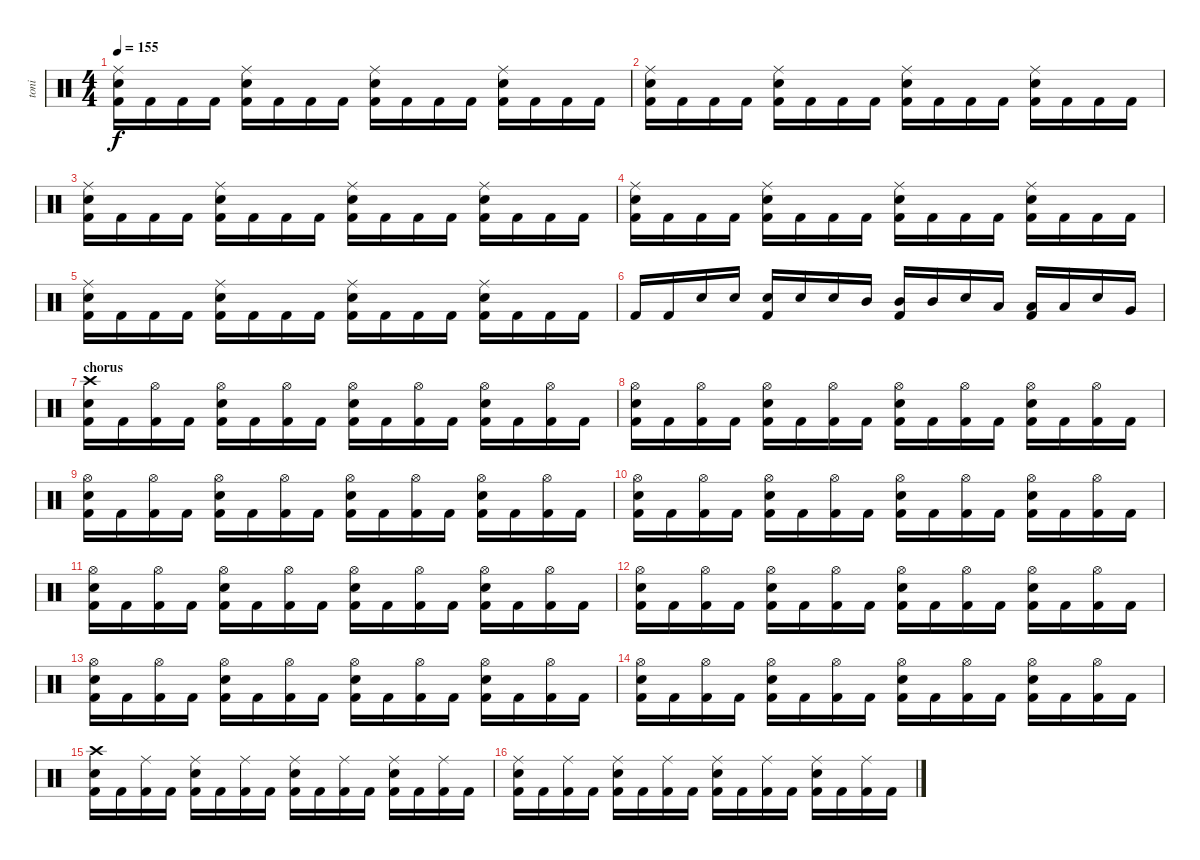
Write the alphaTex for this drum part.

\track ("toni" "toni") {instrument percussion}
\staff {score}
\articulation defaults
\ts (4 4)
\tempo 155
\clef neutral
\ks c
("Ride (middle)" "Snare (hit) 2" "Kick (hit) 2").16{dy f} "Kick (hit) 2".16 "Kick (hit) 2".16 "Kick (hit) 2".16 ("Ride (middle)" "Snare (hit) 2" "Kick (hit) 2").16 "Kick (hit) 2".16 "Kick (hit) 2".16 "Kick (hit) 2".16 ("Ride (middle)" "Snare (hit) 2" "Kick (hit) 2").16 "Kick (hit) 2".16 "Kick (hit) 2".16 "Kick (hit) 2".16 ("Ride (middle)" "Snare (hit) 2" "Kick (hit) 2").16 "Kick (hit) 2".16 "Kick (hit) 2".16 "Kick (hit) 2".16 |
("Ride (middle)" "Snare (hit) 2" "Kick (hit) 2").16 "Kick (hit) 2".16 "Kick (hit) 2".16 "Kick (hit) 2".16 ("Ride (middle)" "Snare (hit) 2" "Kick (hit) 2").16 "Kick (hit) 2".16 "Kick (hit) 2".16 "Kick (hit) 2".16 ("Ride (middle)" "Snare (hit) 2" "Kick (hit) 2").16 "Kick (hit) 2".16 "Kick (hit) 2".16 "Kick (hit) 2".16 ("Ride (middle)" "Snare (hit) 2" "Kick (hit) 2").16 "Kick (hit) 2".16 "Kick (hit) 2".16 "Kick (hit) 2".16 |
("Ride (middle)" "Snare (hit) 2" "Kick (hit) 2").16 "Kick (hit) 2".16 "Kick (hit) 2".16 "Kick (hit) 2".16 ("Ride (middle)" "Snare (hit) 2" "Kick (hit) 2").16 "Kick (hit) 2".16 "Kick (hit) 2".16 "Kick (hit) 2".16 ("Ride (middle)" "Snare (hit) 2" "Kick (hit) 2").16 "Kick (hit) 2".16 "Kick (hit) 2".16 "Kick (hit) 2".16 ("Ride (middle)" "Snare (hit) 2" "Kick (hit) 2").16 "Kick (hit) 2".16 "Kick (hit) 2".16 "Kick (hit) 2".16 |
("Ride (middle)" "Snare (hit) 2" "Kick (hit) 2").16 "Kick (hit) 2".16 "Kick (hit) 2".16 "Kick (hit) 2".16 ("Ride (middle)" "Snare (hit) 2" "Kick (hit) 2").16 "Kick (hit) 2".16 "Kick (hit) 2".16 "Kick (hit) 2".16 ("Ride (middle)" "Snare (hit) 2" "Kick (hit) 2").16 "Kick (hit) 2".16 "Kick (hit) 2".16 "Kick (hit) 2".16 ("Ride (middle)" "Snare (hit) 2" "Kick (hit) 2").16 "Kick (hit) 2".16 "Kick (hit) 2".16 "Kick (hit) 2".16 |
("Ride (middle)" "Snare (hit) 2" "Kick (hit) 2").16 "Kick (hit) 2".16 "Kick (hit) 2".16 "Kick (hit) 2".16 ("Ride (middle)" "Snare (hit) 2" "Kick (hit) 2").16 "Kick (hit) 2".16 "Kick (hit) 2".16 "Kick (hit) 2".16 ("Ride (middle)" "Snare (hit) 2" "Kick (hit) 2").16 "Kick (hit) 2".16 "Kick (hit) 2".16 "Kick (hit) 2".16 ("Ride (middle)" "Snare (hit) 2" "Kick (hit) 2").16 "Kick (hit) 2".16 "Kick (hit) 2".16 "Kick (hit) 2".16 |
"Kick (hit) 2".16 "Kick (hit) 2".16 "Snare (hit) 2".16 "Snare (hit) 2".16 ("Snare (hit) 2" "Kick (hit) 2").16 "Snare (hit) 2".16 "Snare (hit) 2".16 "Mid Tom (hit)".16 ("Mid Tom (hit)" "Kick (hit) 2").16 "Mid Tom (hit)".16 "Snare (hit) 2".16 "Low Tom (hit)".16 ("Low Tom (hit)" "Kick (hit) 2").16 "Low Tom (hit)".16 "Snare (hit) 2".16 "Very Low Tom (hit)".16 |
\section ("" "chorus")
("Crash high (hit)" "Snare (hit) 2" "Kick (hit) 2").16 "Kick (hit) 2".16 ("Hi-Hat (open)" "Kick (hit) 2").16 "Kick (hit) 2".16 ("Hi-Hat (open)" "Snare (hit) 2" "Kick (hit) 2").16 "Kick (hit) 2".16 ("Hi-Hat (open)" "Kick (hit) 2").16 "Kick (hit) 2".16 ("Hi-Hat (open)" "Snare (hit) 2" "Kick (hit) 2").16 "Kick (hit) 2".16 ("Hi-Hat (open)" "Kick (hit) 2").16 "Kick (hit) 2".16 ("Hi-Hat (open)" "Snare (hit) 2" "Kick (hit) 2").16 "Kick (hit) 2".16 ("Hi-Hat (open)" "Kick (hit) 2").16 "Kick (hit) 2".16 |
("Hi-Hat (open)" "Snare (hit) 2" "Kick (hit) 2").16 "Kick (hit) 2".16 ("Hi-Hat (open)" "Kick (hit) 2").16 "Kick (hit) 2".16 ("Hi-Hat (open)" "Snare (hit) 2" "Kick (hit) 2").16 "Kick (hit) 2".16 ("Hi-Hat (open)" "Kick (hit) 2").16 "Kick (hit) 2".16 ("Hi-Hat (open)" "Snare (hit) 2" "Kick (hit) 2").16 "Kick (hit) 2".16 ("Hi-Hat (open)" "Kick (hit) 2").16 "Kick (hit) 2".16 ("Hi-Hat (open)" "Snare (hit) 2" "Kick (hit) 2").16 "Kick (hit) 2".16 ("Hi-Hat (open)" "Kick (hit) 2").16 "Kick (hit) 2".16 |
("Hi-Hat (open)" "Snare (hit) 2" "Kick (hit) 2").16 "Kick (hit) 2".16 ("Hi-Hat (open)" "Kick (hit) 2").16 "Kick (hit) 2".16 ("Hi-Hat (open)" "Snare (hit) 2" "Kick (hit) 2").16 "Kick (hit) 2".16 ("Hi-Hat (open)" "Kick (hit) 2").16 "Kick (hit) 2".16 ("Hi-Hat (open)" "Snare (hit) 2" "Kick (hit) 2").16 "Kick (hit) 2".16 ("Hi-Hat (open)" "Kick (hit) 2").16 "Kick (hit) 2".16 ("Hi-Hat (open)" "Snare (hit) 2" "Kick (hit) 2").16 "Kick (hit) 2".16 ("Hi-Hat (open)" "Kick (hit) 2").16 "Kick (hit) 2".16 |
("Hi-Hat (open)" "Snare (hit) 2" "Kick (hit) 2").16 "Kick (hit) 2".16 ("Hi-Hat (open)" "Kick (hit) 2").16 "Kick (hit) 2".16 ("Hi-Hat (open)" "Snare (hit) 2" "Kick (hit) 2").16 "Kick (hit) 2".16 ("Hi-Hat (open)" "Kick (hit) 2").16 "Kick (hit) 2".16 ("Hi-Hat (open)" "Snare (hit) 2" "Kick (hit) 2").16 "Kick (hit) 2".16 ("Hi-Hat (open)" "Kick (hit) 2").16 "Kick (hit) 2".16 ("Hi-Hat (open)" "Snare (hit) 2" "Kick (hit) 2").16 "Kick (hit) 2".16 ("Hi-Hat (open)" "Kick (hit) 2").16 "Kick (hit) 2".16 |
("Hi-Hat (open)" "Snare (hit) 2" "Kick (hit) 2").16 "Kick (hit) 2".16 ("Hi-Hat (open)" "Kick (hit) 2").16 "Kick (hit) 2".16 ("Hi-Hat (open)" "Snare (hit) 2" "Kick (hit) 2").16 "Kick (hit) 2".16 ("Hi-Hat (open)" "Kick (hit) 2").16 "Kick (hit) 2".16 ("Hi-Hat (open)" "Snare (hit) 2" "Kick (hit) 2").16 "Kick (hit) 2".16 ("Hi-Hat (open)" "Kick (hit) 2").16 "Kick (hit) 2".16 ("Hi-Hat (open)" "Snare (hit) 2" "Kick (hit) 2").16 "Kick (hit) 2".16 ("Hi-Hat (open)" "Kick (hit) 2").16 "Kick (hit) 2".16 |
("Hi-Hat (open)" "Snare (hit) 2" "Kick (hit) 2").16 "Kick (hit) 2".16 ("Hi-Hat (open)" "Kick (hit) 2").16 "Kick (hit) 2".16 ("Hi-Hat (open)" "Snare (hit) 2" "Kick (hit) 2").16 "Kick (hit) 2".16 ("Hi-Hat (open)" "Kick (hit) 2").16 "Kick (hit) 2".16 ("Hi-Hat (open)" "Snare (hit) 2" "Kick (hit) 2").16 "Kick (hit) 2".16 ("Hi-Hat (open)" "Kick (hit) 2").16 "Kick (hit) 2".16 ("Hi-Hat (open)" "Snare (hit) 2" "Kick (hit) 2").16 "Kick (hit) 2".16 ("Hi-Hat (open)" "Kick (hit) 2").16 "Kick (hit) 2".16 |
("Hi-Hat (open)" "Snare (hit) 2" "Kick (hit) 2").16 "Kick (hit) 2".16 ("Hi-Hat (open)" "Kick (hit) 2").16 "Kick (hit) 2".16 ("Hi-Hat (open)" "Snare (hit) 2" "Kick (hit) 2").16 "Kick (hit) 2".16 ("Hi-Hat (open)" "Kick (hit) 2").16 "Kick (hit) 2".16 ("Hi-Hat (open)" "Snare (hit) 2" "Kick (hit) 2").16 "Kick (hit) 2".16 ("Hi-Hat (open)" "Kick (hit) 2").16 "Kick (hit) 2".16 ("Hi-Hat (open)" "Snare (hit) 2" "Kick (hit) 2").16 "Kick (hit) 2".16 ("Hi-Hat (open)" "Kick (hit) 2").16 "Kick (hit) 2".16 |
("Hi-Hat (open)" "Snare (hit) 2" "Kick (hit) 2").16 "Kick (hit) 2".16 ("Hi-Hat (open)" "Kick (hit) 2").16 "Kick (hit) 2".16 ("Hi-Hat (open)" "Snare (hit) 2" "Kick (hit) 2").16 "Kick (hit) 2".16 ("Hi-Hat (open)" "Kick (hit) 2").16 "Kick (hit) 2".16 ("Hi-Hat (open)" "Snare (hit) 2" "Kick (hit) 2").16 "Kick (hit) 2".16 ("Hi-Hat (open)" "Kick (hit) 2").16 "Kick (hit) 2".16 ("Hi-Hat (open)" "Snare (hit) 2" "Kick (hit) 2").16 "Kick (hit) 2".16 ("Hi-Hat (open)" "Kick (hit) 2").16 "Kick (hit) 2".16 |
("Crash high (hit)" "Snare (hit) 2" "Kick (hit) 2").16 "Kick (hit) 2".16 ("Ride (middle)" "Kick (hit) 2").16 "Kick (hit) 2".16 ("Ride (middle)" "Snare (hit) 2" "Kick (hit) 2").16 "Kick (hit) 2".16 ("Ride (middle)" "Kick (hit) 2").16 "Kick (hit) 2".16 ("Ride (middle)" "Snare (hit) 2" "Kick (hit) 2").16 "Kick (hit) 2".16 ("Ride (middle)" "Kick (hit) 2").16 "Kick (hit) 2".16 ("Ride (middle)" "Snare (hit) 2" "Kick (hit) 2").16 "Kick (hit) 2".16 ("Ride (middle)" "Kick (hit) 2").16 "Kick (hit) 2".16 |
("Ride (middle)" "Snare (hit) 2" "Kick (hit) 2").16 "Kick (hit) 2".16 ("Ride (middle)" "Kick (hit) 2").16 "Kick (hit) 2".16 ("Ride (middle)" "Snare (hit) 2" "Kick (hit) 2").16 "Kick (hit) 2".16 ("Ride (middle)" "Kick (hit) 2").16 "Kick (hit) 2".16 ("Ride (middle)" "Snare (hit) 2" "Kick (hit) 2").16 "Kick (hit) 2".16 ("Ride (middle)" "Kick (hit) 2").16 "Kick (hit) 2".16 ("Ride (middle)" "Snare (hit) 2" "Kick (hit) 2").16 "Kick (hit) 2".16 ("Ride (middle)" "Kick (hit) 2").16 "Kick (hit) 2".16
